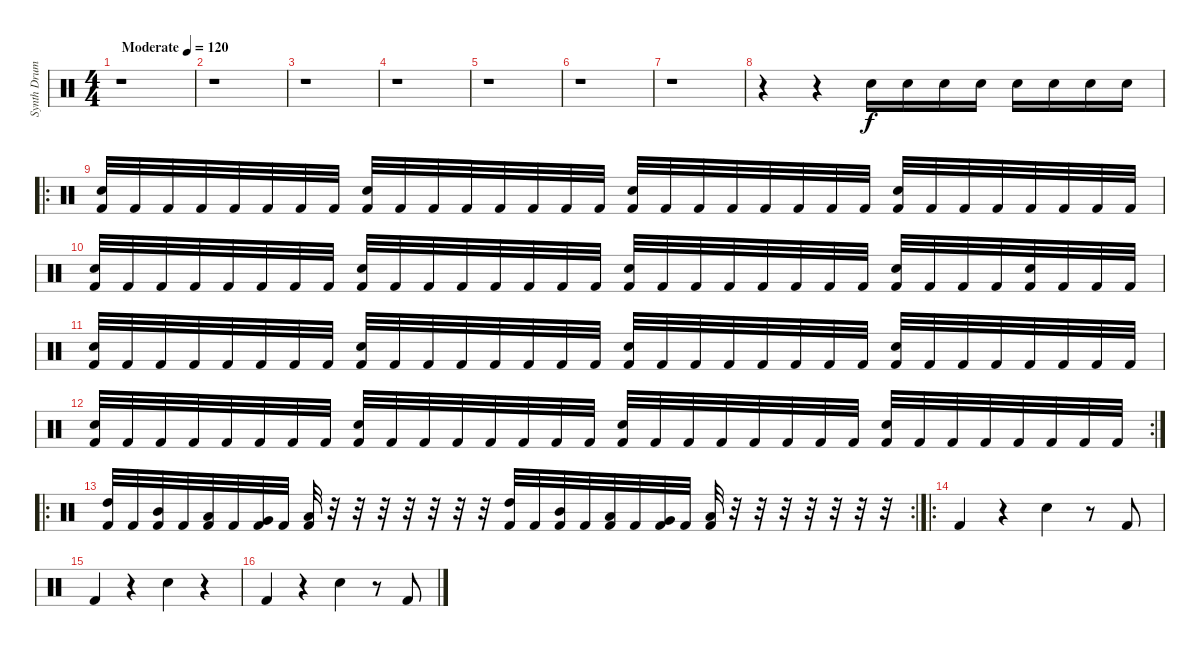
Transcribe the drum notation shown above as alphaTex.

\track ("Synth Drums" "Synth Drum") {instrument percussion}
\staff {score}
\articulation defaults
\ts (4 4)
\tempo (120 "Moderate")
\clef neutral
\ks c
r.1{dy f} |
r.1 |
r.1 |
r.1 |
r.1 |
r.1 |
r.1 |
r.4 r.4 "Snare (hit) 2".16 "Snare (hit) 2".16 "Snare (hit) 2".16 "Snare (hit) 2".16 "Snare (hit) 2".16 "Snare (hit) 2".16 "Snare (hit) 2".16 "Snare (hit) 2".16 |
\ro
("Snare (hit) 2" "Kick (hit) 2").32 "Kick (hit) 2".32 "Kick (hit) 2".32 "Kick (hit) 2".32 "Kick (hit) 2".32 "Kick (hit) 2".32 "Kick (hit) 2".32 "Kick (hit) 2".32 ("Snare (hit) 2" "Kick (hit) 2").32 "Kick (hit) 2".32 "Kick (hit) 2".32 "Kick (hit) 2".32 "Kick (hit) 2".32 "Kick (hit) 2".32 "Kick (hit) 2".32 "Kick (hit) 2".32 ("Snare (hit) 2" "Kick (hit) 2").32 "Kick (hit) 2".32 "Kick (hit) 2".32 "Kick (hit) 2".32 "Kick (hit) 2".32 "Kick (hit) 2".32 "Kick (hit) 2".32 "Kick (hit) 2".32 ("Snare (hit) 2" "Kick (hit) 2").32 "Kick (hit) 2".32 "Kick (hit) 2".32 "Kick (hit) 2".32 "Kick (hit) 2".32 "Kick (hit) 2".32 "Kick (hit) 2".32 "Kick (hit) 2".32 |
("Snare (hit) 2" "Kick (hit) 2").32 "Kick (hit) 2".32 "Kick (hit) 2".32 "Kick (hit) 2".32 "Kick (hit) 2".32 "Kick (hit) 2".32 "Kick (hit) 2".32 "Kick (hit) 2".32 ("Snare (hit) 2" "Kick (hit) 2").32 "Kick (hit) 2".32 "Kick (hit) 2".32 "Kick (hit) 2".32 "Kick (hit) 2".32 "Kick (hit) 2".32 "Kick (hit) 2".32 "Kick (hit) 2".32 ("Snare (hit) 2" "Kick (hit) 2").32 "Kick (hit) 2".32 "Kick (hit) 2".32 "Kick (hit) 2".32 "Kick (hit) 2".32 "Kick (hit) 2".32 "Kick (hit) 2".32 "Kick (hit) 2".32 ("Snare (hit) 2" "Kick (hit) 2").32 "Kick (hit) 2".32 "Kick (hit) 2".32 "Kick (hit) 2".32 ("Snare (hit) 2" "Kick (hit) 2").32 "Kick (hit) 2".32 "Kick (hit) 2".32 "Kick (hit) 2".32 |
("Snare (hit) 2" "Kick (hit) 2").32 "Kick (hit) 2".32 "Kick (hit) 2".32 "Kick (hit) 2".32 "Kick (hit) 2".32 "Kick (hit) 2".32 "Kick (hit) 2".32 "Kick (hit) 2".32 ("Snare (hit) 2" "Kick (hit) 2").32 "Kick (hit) 2".32 "Kick (hit) 2".32 "Kick (hit) 2".32 "Kick (hit) 2".32 "Kick (hit) 2".32 "Kick (hit) 2".32 "Kick (hit) 2".32 ("Snare (hit) 2" "Kick (hit) 2").32 "Kick (hit) 2".32 "Kick (hit) 2".32 "Kick (hit) 2".32 "Kick (hit) 2".32 "Kick (hit) 2".32 "Kick (hit) 2".32 "Kick (hit) 2".32 ("Snare (hit) 2" "Kick (hit) 2").32 "Kick (hit) 2".32 "Kick (hit) 2".32 "Kick (hit) 2".32 "Kick (hit) 2".32 "Kick (hit) 2".32 "Kick (hit) 2".32 "Kick (hit) 2".32 |
\rc 2
("Snare (hit) 2" "Kick (hit) 2").32 "Kick (hit) 2".32 "Kick (hit) 2".32 "Kick (hit) 2".32 "Kick (hit) 2".32 "Kick (hit) 2".32 "Kick (hit) 2".32 "Kick (hit) 2".32 ("Snare (hit) 2" "Kick (hit) 2").32 "Kick (hit) 2".32 "Kick (hit) 2".32 "Kick (hit) 2".32 "Kick (hit) 2".32 "Kick (hit) 2".32 "Kick (hit) 2".32 "Kick (hit) 2".32 ("Snare (hit) 2" "Kick (hit) 2").32 "Kick (hit) 2".32 "Kick (hit) 2".32 "Kick (hit) 2".32 "Kick (hit) 2".32 "Kick (hit) 2".32 "Kick (hit) 2".32 "Kick (hit) 2".32 ("Snare (hit) 2" "Kick (hit) 2").32 "Kick (hit) 2".32 "Kick (hit) 2".32 "Kick (hit) 2".32 "Kick (hit) 2".32 "Kick (hit) 2".32 "Kick (hit) 2".32 "Kick (hit) 2".32 |
\ro
\rc 2
("High Tom (hit)" "Kick (hit) 2").32 "Kick (hit) 2".32 ("Mid Tom (hit)" "Kick (hit) 2").32 "Kick (hit) 2".32 ("Low Tom (hit)" "Kick (hit) 2").32 "Kick (hit) 2".32 ("Very Low Tom (hit)" "Kick (hit) 2").32 "Kick (hit) 2".32 ("Low Floor Tom (hit)" "Kick (hit) 2").32 r.32 r.32 r.32 r.32 r.32 r.32 r.32 ("High Tom (hit)" "Kick (hit) 2").32 "Kick (hit) 2".32 ("Mid Tom (hit)" "Kick (hit) 2").32 "Kick (hit) 2".32 ("Low Tom (hit)" "Kick (hit) 2").32 "Kick (hit) 2".32 ("Very Low Tom (hit)" "Kick (hit) 2").32 "Kick (hit) 2".32 ("Low Floor Tom (hit)" "Kick (hit) 2").32 r.32 r.32 r.32 r.32 r.32 r.32 r.32 |
\ro "Kick (hit) 2".4
r.4 "Snare (hit) 2".4 r.8 "Kick (hit) 2".8 |
"Kick (hit) 2".4 r.4 "Snare (hit) 2".4 r.4 |
"Kick (hit) 2".4 r.4 "Snare (hit) 2".4 r.8 "Kick (hit) 2".8
